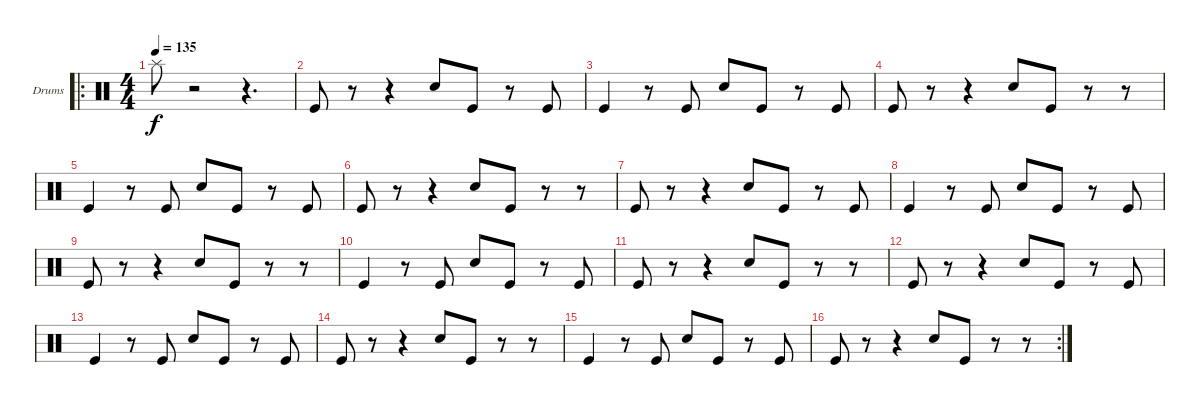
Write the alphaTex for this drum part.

\bracketExtendMode groupsimilarinstruments
\firstSystemTrackNameOrientation horizontal
\otherSystemsTrackNameOrientation horizontal
\track ("Drumkit" "Drums") {instrument percussion}
\staff {score}
\articulation defaults
\ro
\ts (4 4)
\tempo 135
\clef neutral
\ks c "Splash (hit)".8{dy f}
r.2 r.4{d} |
"Kick (hit)".8 r.8 r.4 "Snare (hit) 2".8 "Kick (hit)".8 r.8 "Kick (hit)".8 |
"Kick (hit)".4 r.8 "Kick (hit)".8 "Snare (hit) 2".8 "Kick (hit)".8 r.8 "Kick (hit)".8 |
"Kick (hit)".8 r.8 r.4 "Snare (hit) 2".8 "Kick (hit)".8 r.8 r.8 |
"Kick (hit)".4 r.8 "Kick (hit)".8 "Snare (hit) 2".8 "Kick (hit)".8 r.8 "Kick (hit)".8 |
"Kick (hit)".8 r.8 r.4 "Snare (hit) 2".8 "Kick (hit)".8 r.8 r.8 |
"Kick (hit)".8 r.8 r.4 "Snare (hit) 2".8 "Kick (hit)".8 r.8 "Kick (hit)".8 |
"Kick (hit)".4 r.8 "Kick (hit)".8 "Snare (hit) 2".8 "Kick (hit)".8 r.8 "Kick (hit)".8 |
"Kick (hit)".8 r.8 r.4 "Snare (hit) 2".8 "Kick (hit)".8 r.8 r.8 |
"Kick (hit)".4 r.8 "Kick (hit)".8 "Snare (hit) 2".8 "Kick (hit)".8 r.8 "Kick (hit)".8 |
"Kick (hit)".8 r.8 r.4 "Snare (hit) 2".8 "Kick (hit)".8 r.8 r.8 |
"Kick (hit)".8 r.8 r.4 "Snare (hit) 2".8 "Kick (hit)".8 r.8 "Kick (hit)".8 |
"Kick (hit)".4 r.8 "Kick (hit)".8 "Snare (hit) 2".8 "Kick (hit)".8 r.8 "Kick (hit)".8 |
"Kick (hit)".8 r.8 r.4 "Snare (hit) 2".8 "Kick (hit)".8 r.8 r.8 |
"Kick (hit)".4 r.8 "Kick (hit)".8 "Snare (hit) 2".8 "Kick (hit)".8 r.8 "Kick (hit)".8 |
\rc 2 "Kick (hit)".8
r.8 r.4 "Snare (hit) 2".8 "Kick (hit)".8 r.8 r.8
